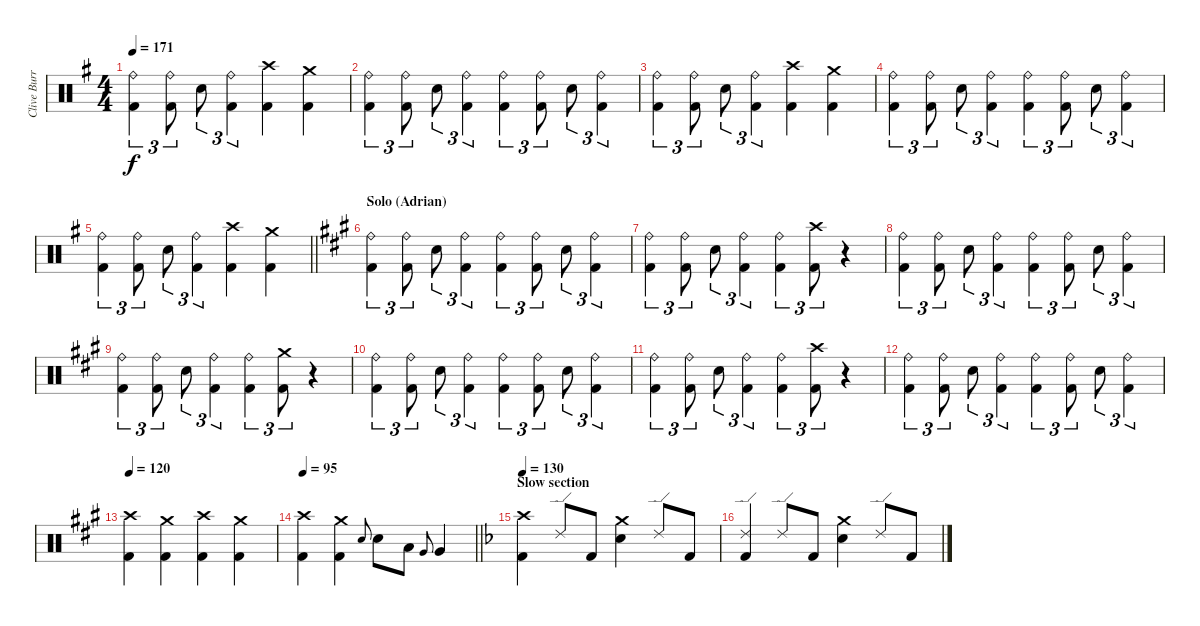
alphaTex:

\track ("Clive Burr" "Clive Burr") {instrument percussion}
\staff {score}
\articulation defaults
\ts (4 4)
\tempo 171
\clef neutral
\ks eminor
("Ride (bell)" "Kick (hit) 2").4{tu (3 2) dy f} ("Ride (bell)" "Kick (hit) 2").8{tu (3 2)} "Snare (hit) 2".8{tu (3 2)} ("Ride (bell)" "Kick (hit) 2").4{tu (3 2)} ("Crash high (hit)" "Kick (hit) 2").4 ("Crash medium (hit)" "Kick (hit) 2").4 |
("Ride (bell)" "Kick (hit) 2").4{tu (3 2)} ("Ride (bell)" "Kick (hit) 2").8{tu (3 2)} "Snare (hit) 2".8{tu (3 2)} ("Ride (bell)" "Kick (hit) 2").4{tu (3 2)} ("Ride (bell)" "Kick (hit) 2").4{tu (3 2)} ("Ride (bell)" "Kick (hit) 2").8{tu (3 2)} "Snare (hit) 2".8{tu (3 2)} ("Ride (bell)" "Kick (hit) 2").4{tu (3 2)} |
("Ride (bell)" "Kick (hit) 2").4{tu (3 2)} ("Ride (bell)" "Kick (hit) 2").8{tu (3 2)} "Snare (hit) 2".8{tu (3 2)} ("Ride (bell)" "Kick (hit) 2").4{tu (3 2)} ("Crash high (hit)" "Kick (hit) 2").4 ("Crash medium (hit)" "Kick (hit) 2").4 |
("Ride (bell)" "Kick (hit) 2").4{tu (3 2)} ("Ride (bell)" "Kick (hit) 2").8{tu (3 2)} "Snare (hit) 2".8{tu (3 2)} ("Ride (bell)" "Kick (hit) 2").4{tu (3 2)} ("Ride (bell)" "Kick (hit) 2").4{tu (3 2)} ("Ride (bell)" "Kick (hit) 2").8{tu (3 2)} "Snare (hit) 2".8{tu (3 2)} ("Ride (bell)" "Kick (hit) 2").4{tu (3 2)} |
\barLineRight lightlight
("Ride (bell)" "Kick (hit) 2").4{tu (3 2)} ("Ride (bell)" "Kick (hit) 2").8{tu (3 2)} "Snare (hit) 2".8{tu (3 2)} ("Ride (bell)" "Kick (hit) 2").4{tu (3 2)} ("Crash high (hit)" "Kick (hit) 2").4 ("Crash medium (hit)" "Kick (hit) 2").4 |
\section ("" "Solo (Adrian)")
\ks f#minor
("Ride (bell)" "Kick (hit) 2").4{tu (3 2)} ("Ride (bell)" "Kick (hit) 2").8{tu (3 2)} "Snare (hit) 2".8{tu (3 2)} ("Ride (bell)" "Kick (hit) 2").4{tu (3 2)} ("Ride (bell)" "Kick (hit) 2").4{tu (3 2)} ("Ride (bell)" "Kick (hit) 2").8{tu (3 2)} "Snare (hit) 2".8{tu (3 2)} ("Ride (bell)" "Kick (hit) 2").4{tu (3 2)} |
("Ride (bell)" "Kick (hit) 2").4{tu (3 2)} ("Ride (bell)" "Kick (hit) 2").8{tu (3 2)} "Snare (hit) 2".8{tu (3 2)} ("Ride (bell)" "Kick (hit) 2").4{tu (3 2)} ("Ride (bell)" "Kick (hit) 2").4{tu (3 2)} ("Crash high (hit)" "Kick (hit) 2").8{tu (3 2)} r.4 |
("Ride (bell)" "Kick (hit) 2").4{tu (3 2)} ("Ride (bell)" "Kick (hit) 2").8{tu (3 2)} "Snare (hit) 2".8{tu (3 2)} ("Ride (bell)" "Kick (hit) 2").4{tu (3 2)} ("Ride (bell)" "Kick (hit) 2").4{tu (3 2)} ("Ride (bell)" "Kick (hit) 2").8{tu (3 2)} "Snare (hit) 2".8{tu (3 2)} ("Ride (bell)" "Kick (hit) 2").4{tu (3 2)} |
("Ride (bell)" "Kick (hit) 2").4{tu (3 2)} ("Ride (bell)" "Kick (hit) 2").8{tu (3 2)} "Snare (hit) 2".8{tu (3 2)} ("Ride (bell)" "Kick (hit) 2").4{tu (3 2)} ("Ride (bell)" "Kick (hit) 2").4{tu (3 2)} ("Crash medium (hit)" "Kick (hit) 2").8{tu (3 2)} r.4 |
("Ride (bell)" "Kick (hit) 2").4{tu (3 2)} ("Ride (bell)" "Kick (hit) 2").8{tu (3 2)} "Snare (hit) 2".8{tu (3 2)} ("Ride (bell)" "Kick (hit) 2").4{tu (3 2)} ("Ride (bell)" "Kick (hit) 2").4{tu (3 2)} ("Ride (bell)" "Kick (hit) 2").8{tu (3 2)} "Snare (hit) 2".8{tu (3 2)} ("Ride (bell)" "Kick (hit) 2").4{tu (3 2)} |
("Ride (bell)" "Kick (hit) 2").4{tu (3 2)} ("Ride (bell)" "Kick (hit) 2").8{tu (3 2)} "Snare (hit) 2".8{tu (3 2)} ("Ride (bell)" "Kick (hit) 2").4{tu (3 2)} ("Ride (bell)" "Kick (hit) 2").4{tu (3 2)} ("Crash high (hit)" "Kick (hit) 2").8{tu (3 2)} r.4 |
("Ride (bell)" "Kick (hit) 2").4{tu (3 2)} ("Ride (bell)" "Kick (hit) 2").8{tu (3 2)} "Snare (hit) 2".8{tu (3 2)} ("Ride (bell)" "Kick (hit) 2").4{tu (3 2)} ("Ride (bell)" "Kick (hit) 2").4{tu (3 2)} ("Ride (bell)" "Kick (hit) 2").8{tu (3 2)} "Snare (hit) 2".8{tu (3 2)} ("Ride (bell)" "Kick (hit) 2").4{tu (3 2)} |
\tempo 120
("Crash high (hit)" "Kick (hit) 2").4 ("Crash medium (hit)" "Kick (hit) 2").4 ("Crash high (hit)" "Kick (hit) 2").4 ("Crash medium (hit)" "Kick (hit) 2").4 |
\tempo 95
\barLineRight lightlight
("Crash high (hit)" "Kick (hit) 2").4 ("Crash medium (hit)" "Kick (hit) 2").4 "Snare (hit) 2".8{gr onbeat} "Snare (hit) 2".8 "Low Tom (hit)".8 "Very Low Tom (hit)".8{gr onbeat} "Very Low Tom (hit)".4 |
\section ("" "Slow section")
\tempo 130
\ks dminor
("Crash high (hit)" "Kick (hit) 2").4 "Ride (edge) 2".8 "Kick (hit) 2".8 ("Crash medium (hit)" "Snare (hit) 2").4 "Ride (edge) 2".8 "Kick (hit) 2".8 |
("Ride (edge) 2" "Kick (hit) 2").4 "Ride (edge) 2".8 "Kick (hit) 2".8 ("Crash medium (hit)" "Snare (hit) 2").4 "Ride (edge) 2".8 "Kick (hit) 2".8
